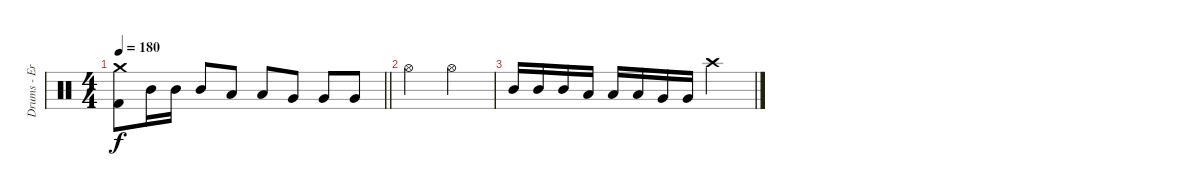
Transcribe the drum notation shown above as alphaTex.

\track ("Drums - Eric Young" "Drums - Er") {instrument percussion}
\staff {score}
\articulation defaults
\ts (4 4)
\tempo 180
\clef neutral
\barLineRight lightlight
\ks c
("Crash medium (hit)" "Kick (hit) 2").8{dy f} "Mid Tom (hit)".16 "Mid Tom (hit)".16 "Mid Tom (hit)".8 "Low Tom (hit)".8 "Low Tom (hit)".8 "Very Low Tom (hit)".8 "Very Low Tom (hit)".8 "Very Low Tom (hit)".8 |
"Hi-Hat (open)".2 "Hi-Hat (open)".2 |
"Mid Tom (hit)".16 "Mid Tom (hit)".16 "Mid Tom (hit)".16 "Low Tom (hit)".16 "Low Tom (hit)".16 "Low Tom (hit)".16 "Very Low Tom (hit)".16 "Very Low Tom (hit)".16 "Crash high (hit)".2
